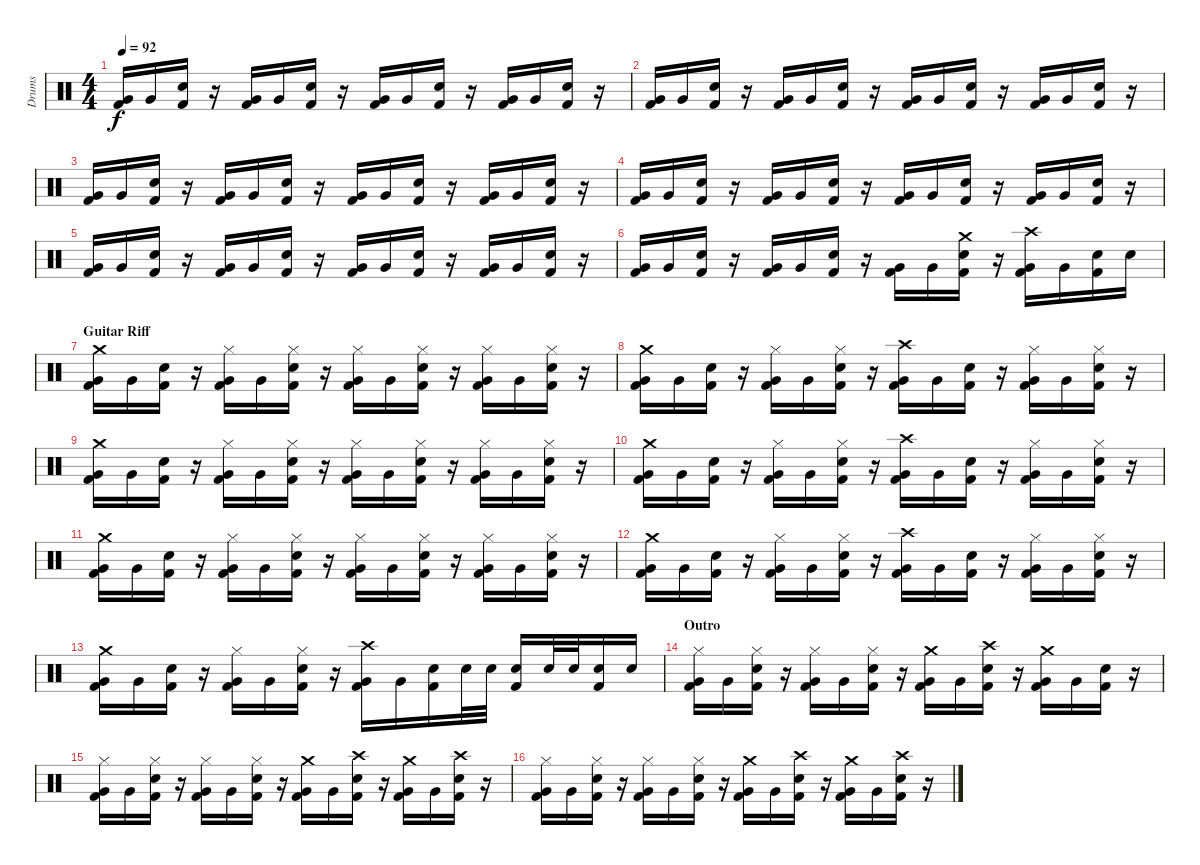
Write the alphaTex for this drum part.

\track ("Drums" "Drums") {instrument percussion}
\staff {score}
\articulation defaults
\ts (4 4)
\tempo 92
\clef neutral
\ks c
("Very Low Tom (hit)" "Kick (hit) 2").16{dy f} "Very Low Tom (hit)".16 ("Electric Snare (hit)" "Kick (hit) 2").16 r.16 ("Very Low Tom (hit)" "Kick (hit) 2").16 "Very Low Tom (hit)".16 ("Electric Snare (hit)" "Kick (hit) 2").16 r.16 ("Very Low Tom (hit)" "Kick (hit) 2").16 "Very Low Tom (hit)".16 ("Electric Snare (hit)" "Kick (hit) 2").16 r.16 ("Very Low Tom (hit)" "Kick (hit) 2").16 "Very Low Tom (hit)".16 ("Electric Snare (hit)" "Kick (hit) 2").16 r.16 |
("Very Low Tom (hit)" "Kick (hit) 2").16 "Very Low Tom (hit)".16 ("Electric Snare (hit)" "Kick (hit) 2").16 r.16 ("Very Low Tom (hit)" "Kick (hit) 2").16 "Very Low Tom (hit)".16 ("Electric Snare (hit)" "Kick (hit) 2").16 r.16 ("Very Low Tom (hit)" "Kick (hit) 2").16 "Very Low Tom (hit)".16 ("Electric Snare (hit)" "Kick (hit) 2").16 r.16 ("Very Low Tom (hit)" "Kick (hit) 2").16 "Very Low Tom (hit)".16 ("Electric Snare (hit)" "Kick (hit) 2").16 r.16 |
("Very Low Tom (hit)" "Kick (hit) 2").16 "Very Low Tom (hit)".16 ("Electric Snare (hit)" "Kick (hit) 2").16 r.16 ("Very Low Tom (hit)" "Kick (hit) 2").16 "Very Low Tom (hit)".16 ("Electric Snare (hit)" "Kick (hit) 2").16 r.16 ("Very Low Tom (hit)" "Kick (hit) 2").16 "Very Low Tom (hit)".16 ("Electric Snare (hit)" "Kick (hit) 2").16 r.16 ("Very Low Tom (hit)" "Kick (hit) 2").16 "Very Low Tom (hit)".16 ("Electric Snare (hit)" "Kick (hit) 2").16 r.16 |
("Very Low Tom (hit)" "Kick (hit) 2").16 "Very Low Tom (hit)".16 ("Electric Snare (hit)" "Kick (hit) 2").16 r.16 ("Very Low Tom (hit)" "Kick (hit) 2").16 "Very Low Tom (hit)".16 ("Electric Snare (hit)" "Kick (hit) 2").16 r.16 ("Very Low Tom (hit)" "Kick (hit) 2").16 "Very Low Tom (hit)".16 ("Electric Snare (hit)" "Kick (hit) 2").16 r.16 ("Very Low Tom (hit)" "Kick (hit) 2").16 "Very Low Tom (hit)".16 ("Electric Snare (hit)" "Kick (hit) 2").16 r.16 |
("Very Low Tom (hit)" "Kick (hit) 2").16 "Very Low Tom (hit)".16 ("Electric Snare (hit)" "Kick (hit) 2").16 r.16 ("Very Low Tom (hit)" "Kick (hit) 2").16 "Very Low Tom (hit)".16 ("Electric Snare (hit)" "Kick (hit) 2").16 r.16 ("Very Low Tom (hit)" "Kick (hit) 2").16 "Very Low Tom (hit)".16 ("Electric Snare (hit)" "Kick (hit) 2").16 r.16 ("Very Low Tom (hit)" "Kick (hit) 2").16 "Very Low Tom (hit)".16 ("Electric Snare (hit)" "Kick (hit) 2").16 r.16 |
("Very Low Tom (hit)" "Kick (hit) 2").16 "Very Low Tom (hit)".16 ("Electric Snare (hit)" "Kick (hit) 2").16 r.16 ("Very Low Tom (hit)" "Kick (hit) 2").16 "Very Low Tom (hit)".16 ("Electric Snare (hit)" "Kick (hit) 2").16 r.16 ("Very Low Tom (hit)" "Kick (hit) 2").16 "Very Low Tom (hit)".16 ("Crash medium (hit)" "Electric Snare (hit)" "Kick (hit) 2").16 r.16 ("Crash high (hit)" "Very Low Tom (hit)" "Kick (hit) 2").16 "Very Low Tom (hit)".16 ("Electric Snare (hit)" "Kick (hit) 2").16 "Electric Snare (hit)".16 |
\section ("" "Guitar Riff")
("Crash medium (hit)" "Very Low Tom (hit)" "Kick (hit) 2").16 "Very Low Tom (hit)".16 ("Electric Snare (hit)" "Kick (hit) 2").16 r.16 ("Hi-Hat (closed)" "Very Low Tom (hit)" "Kick (hit) 2").16 "Very Low Tom (hit)".16 ("Hi-Hat (closed)" "Electric Snare (hit)" "Kick (hit) 2").16 r.16 ("Hi-Hat (closed)" "Very Low Tom (hit)" "Kick (hit) 2").16 "Very Low Tom (hit)".16 ("Hi-Hat (closed)" "Electric Snare (hit)" "Kick (hit) 2").16 r.16 ("Hi-Hat (closed)" "Very Low Tom (hit)" "Kick (hit) 2").16 "Very Low Tom (hit)".16 ("Hi-Hat (closed)" "Electric Snare (hit)" "Kick (hit) 2").16 r.16 |
("Crash medium (hit)" "Very Low Tom (hit)" "Kick (hit) 2").16 "Very Low Tom (hit)".16 ("Electric Snare (hit)" "Kick (hit) 2").16 r.16 ("Hi-Hat (closed)" "Very Low Tom (hit)" "Kick (hit) 2").16 "Very Low Tom (hit)".16 ("Hi-Hat (closed)" "Electric Snare (hit)" "Kick (hit) 2").16 r.16 ("Crash high (hit)" "Very Low Tom (hit)" "Kick (hit) 2").16 "Very Low Tom (hit)".16 ("Electric Snare (hit)" "Kick (hit) 2").16 r.16 ("Hi-Hat (closed)" "Very Low Tom (hit)" "Kick (hit) 2").16 "Very Low Tom (hit)".16 ("Hi-Hat (closed)" "Electric Snare (hit)" "Kick (hit) 2").16 r.16 |
("Crash medium (hit)" "Very Low Tom (hit)" "Kick (hit) 2").16 "Very Low Tom (hit)".16 ("Electric Snare (hit)" "Kick (hit) 2").16 r.16 ("Hi-Hat (closed)" "Very Low Tom (hit)" "Kick (hit) 2").16 "Very Low Tom (hit)".16 ("Hi-Hat (closed)" "Electric Snare (hit)" "Kick (hit) 2").16 r.16 ("Hi-Hat (closed)" "Very Low Tom (hit)" "Kick (hit) 2").16 "Very Low Tom (hit)".16 ("Hi-Hat (closed)" "Electric Snare (hit)" "Kick (hit) 2").16 r.16 ("Hi-Hat (closed)" "Very Low Tom (hit)" "Kick (hit) 2").16 "Very Low Tom (hit)".16 ("Hi-Hat (closed)" "Electric Snare (hit)" "Kick (hit) 2").16 r.16 |
("Crash medium (hit)" "Very Low Tom (hit)" "Kick (hit) 2").16 "Very Low Tom (hit)".16 ("Electric Snare (hit)" "Kick (hit) 2").16 r.16 ("Hi-Hat (closed)" "Very Low Tom (hit)" "Kick (hit) 2").16 "Very Low Tom (hit)".16 ("Hi-Hat (closed)" "Electric Snare (hit)" "Kick (hit) 2").16 r.16 ("Crash high (hit)" "Very Low Tom (hit)" "Kick (hit) 2").16 "Very Low Tom (hit)".16 ("Electric Snare (hit)" "Kick (hit) 2").16 r.16 ("Hi-Hat (closed)" "Very Low Tom (hit)" "Kick (hit) 2").16 "Very Low Tom (hit)".16 ("Hi-Hat (closed)" "Electric Snare (hit)" "Kick (hit) 2").16 r.16 |
("Crash medium (hit)" "Very Low Tom (hit)" "Kick (hit) 2").16 "Very Low Tom (hit)".16 ("Electric Snare (hit)" "Kick (hit) 2").16 r.16 ("Hi-Hat (closed)" "Very Low Tom (hit)" "Kick (hit) 2").16 "Very Low Tom (hit)".16 ("Hi-Hat (closed)" "Electric Snare (hit)" "Kick (hit) 2").16 r.16 ("Hi-Hat (closed)" "Very Low Tom (hit)" "Kick (hit) 2").16 "Very Low Tom (hit)".16 ("Hi-Hat (closed)" "Electric Snare (hit)" "Kick (hit) 2").16 r.16 ("Hi-Hat (closed)" "Very Low Tom (hit)" "Kick (hit) 2").16 "Very Low Tom (hit)".16 ("Hi-Hat (closed)" "Electric Snare (hit)" "Kick (hit) 2").16 r.16 |
("Crash medium (hit)" "Very Low Tom (hit)" "Kick (hit) 2").16 "Very Low Tom (hit)".16 ("Electric Snare (hit)" "Kick (hit) 2").16 r.16 ("Hi-Hat (closed)" "Very Low Tom (hit)" "Kick (hit) 2").16 "Very Low Tom (hit)".16 ("Hi-Hat (closed)" "Electric Snare (hit)" "Kick (hit) 2").16 r.16 ("Crash high (hit)" "Very Low Tom (hit)" "Kick (hit) 2").16 "Very Low Tom (hit)".16 ("Electric Snare (hit)" "Kick (hit) 2").16 r.16 ("Hi-Hat (closed)" "Very Low Tom (hit)" "Kick (hit) 2").16 "Very Low Tom (hit)".16 ("Hi-Hat (closed)" "Electric Snare (hit)" "Kick (hit) 2").16 r.16 |
("Crash medium (hit)" "Very Low Tom (hit)" "Kick (hit) 2").16 "Very Low Tom (hit)".16 ("Electric Snare (hit)" "Kick (hit) 2").16 r.16 ("Hi-Hat (closed)" "Very Low Tom (hit)" "Kick (hit) 2").16 "Very Low Tom (hit)".16 ("Hi-Hat (closed)" "Electric Snare (hit)" "Kick (hit) 2").16 r.16 ("Crash high (hit)" "Very Low Tom (hit)" "Kick (hit) 2").16 "Very Low Tom (hit)".16 ("Electric Snare (hit)" "Kick (hit) 2").16 "Electric Snare (hit)".32 "Electric Snare (hit)".32 ("Electric Snare (hit)" "Kick (hit) 2").16 "Electric Snare (hit)".32 "Electric Snare (hit)".32 ("Electric Snare (hit)" "Kick (hit) 2").16 "Electric Snare (hit)".16 |
\section ("" "Outro")
("Hi-Hat (closed)" "Very Low Tom (hit)" "Kick (hit) 2").16 "Very Low Tom (hit)".16 ("Hi-Hat (closed)" "Electric Snare (hit)" "Kick (hit) 2").16 r.16 ("Hi-Hat (closed)" "Very Low Tom (hit)" "Kick (hit) 2").16 "Very Low Tom (hit)".16 ("Hi-Hat (closed)" "Electric Snare (hit)" "Kick (hit) 2").16 r.16 ("Crash medium (hit)" "Very Low Tom (hit)" "Kick (hit) 2").16 "Very Low Tom (hit)".16 ("Crash high (hit)" "Electric Snare (hit)" "Kick (hit) 2").16 r.16 ("Crash medium (hit)" "Very Low Tom (hit)" "Kick (hit) 2").16 "Very Low Tom (hit)".16 ("Electric Snare (hit)" "Kick (hit) 2").16 r.16 |
("Hi-Hat (closed)" "Very Low Tom (hit)" "Kick (hit) 2").16 "Very Low Tom (hit)".16 ("Hi-Hat (closed)" "Electric Snare (hit)" "Kick (hit) 2").16 r.16 ("Hi-Hat (closed)" "Very Low Tom (hit)" "Kick (hit) 2").16 "Very Low Tom (hit)".16 ("Hi-Hat (closed)" "Electric Snare (hit)" "Kick (hit) 2").16 r.16 ("Crash medium (hit)" "Very Low Tom (hit)" "Kick (hit) 2").16 "Very Low Tom (hit)".16 ("Crash high (hit)" "Electric Snare (hit)" "Kick (hit) 2").16 r.16 ("Crash medium (hit)" "Very Low Tom (hit)" "Kick (hit) 2").16 "Very Low Tom (hit)".16 ("Crash high (hit)" "Electric Snare (hit)" "Kick (hit) 2").16 r.16 |
("Hi-Hat (closed)" "Very Low Tom (hit)" "Kick (hit) 2").16 "Very Low Tom (hit)".16 ("Hi-Hat (closed)" "Electric Snare (hit)" "Kick (hit) 2").16 r.16 ("Hi-Hat (closed)" "Very Low Tom (hit)" "Kick (hit) 2").16 "Very Low Tom (hit)".16 ("Hi-Hat (closed)" "Electric Snare (hit)" "Kick (hit) 2").16 r.16 ("Crash medium (hit)" "Very Low Tom (hit)" "Kick (hit) 2").16 "Very Low Tom (hit)".16 ("Crash high (hit)" "Electric Snare (hit)" "Kick (hit) 2").16 r.16 ("Crash medium (hit)" "Very Low Tom (hit)" "Kick (hit) 2").16 "Very Low Tom (hit)".16 ("Crash high (hit)" "Electric Snare (hit)" "Kick (hit) 2").16 r.16
